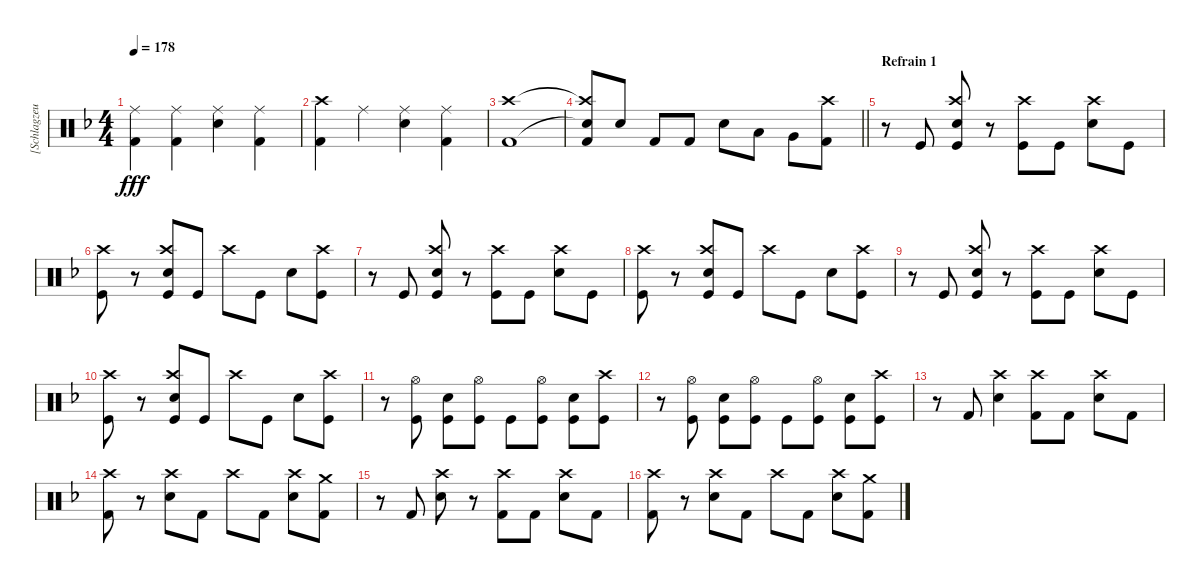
\track ("[Schlagzeug]" "[Schlagzeu") {instrument percussion}
\staff {score}
\articulation defaults
\ts (4 4)
\tempo 178
\clef neutral
\ks dminor
("Ride (middle)" "Kick (hit) 2").4{dy fff} ("Ride (middle)" "Kick (hit) 2").4 ("Ride (middle)" "Electric Snare (hit)").4 ("Ride (middle)" "Kick (hit) 2").4 |
("Crash high (hit)" "Kick (hit) 2").4 "Ride (middle)".4 ("Ride (middle)" "Electric Snare (hit)").4 ("Ride (middle)" "Kick (hit) 2").4 |
("Crash high (hit)" "Kick (hit) 2").1 |
\barLineRight lightlight
("Crash high (hit)"{t} "Snare (hit)"{t} "Kick (hit) 2").8 "Electric Snare (hit)".8 "Kick (hit) 2".8 "Kick (hit) 2".8 "Electric Snare (hit)".8 "Low Tom (hit)".8 "Very Low Tom (hit)".8 ("Crash high (hit)" "Kick (hit) 2").8 |
\section ("" "Refrain 1")
r.8 "Kick (hit)".8 ("Crash high (hit)" "Electric Snare (hit)" "Kick (hit)").8 r.8 ("Crash high (hit)" "Kick (hit)").8 "Kick (hit)".8 ("Crash high (hit)" "Electric Snare (hit)").8 "Kick (hit)".8 |
("Crash high (hit)" "Kick (hit)").8 r.8 ("Crash high (hit)" "Electric Snare (hit)" "Kick (hit)").8 "Kick (hit)".8 "Crash high (hit)".8 "Kick (hit)".8 "Electric Snare (hit)".8 ("Kick (hit)" "Crash high (hit)").8 |
r.8 "Kick (hit)".8 ("Crash high (hit)" "Electric Snare (hit)" "Kick (hit)").8 r.8 ("Crash high (hit)" "Kick (hit)").8 "Kick (hit)".8 ("Crash high (hit)" "Electric Snare (hit)").8 "Kick (hit)".8 |
("Crash high (hit)" "Kick (hit)").8 r.8 ("Crash high (hit)" "Electric Snare (hit)" "Kick (hit)").8 "Kick (hit)".8 "Crash high (hit)".8 "Kick (hit)".8 "Electric Snare (hit)".8 ("Kick (hit)" "Crash high (hit)").8 |
r.8 "Kick (hit)".8 ("Crash high (hit)" "Electric Snare (hit)" "Kick (hit)").8 r.8 ("Crash high (hit)" "Kick (hit)").8 "Kick (hit)".8 ("Crash high (hit)" "Electric Snare (hit)").8 "Kick (hit)".8 |
("Crash high (hit)" "Kick (hit)").8 r.8 ("Crash high (hit)" "Electric Snare (hit)" "Kick (hit)").8 "Kick (hit)".8 "Crash high (hit)".8 "Kick (hit)".8 "Electric Snare (hit)".8 ("Kick (hit)" "Crash high (hit)").8 |
r.8 ("Hi-Hat (open)" "Kick (hit)").8 ("Electric Snare (hit)" "Kick (hit)").8 ("Hi-Hat (open)" "Kick (hit)").8 "Kick (hit)".8 ("Hi-Hat (open)" "Kick (hit)").8 ("Electric Snare (hit)" "Kick (hit)").8 ("Crash high (hit)" "Kick (hit)").8 |
r.8 ("Hi-Hat (open)" "Kick (hit)").8 ("Electric Snare (hit)" "Kick (hit)").8 ("Hi-Hat (open)" "Kick (hit)").8 "Kick (hit)".8 ("Hi-Hat (open)" "Kick (hit)").8 ("Electric Snare (hit)" "Kick (hit)").8 ("Crash high (hit)" "Kick (hit)").8 |
r.8 "Kick (hit) 2".8 ("Crash high (hit)" "Electric Snare (hit)").4 ("Crash high (hit)" "Kick (hit) 2").8 "Kick (hit) 2".8 ("Crash high (hit)" "Electric Snare (hit)").8 "Kick (hit) 2".8 |
("Crash high (hit)" "Kick (hit) 2").8 r.8 ("Crash high (hit)" "Electric Snare (hit)").8 "Kick (hit) 2".8 "Crash high (hit)".8 "Kick (hit) 2".8 ("Crash high (hit)" "Electric Snare (hit)").8 ("Crash medium (hit)" "Kick (hit) 2").8 |
r.8 "Kick (hit) 2".8 ("Crash high (hit)" "Electric Snare (hit)").8 r.8 ("Crash high (hit)" "Kick (hit) 2").8 "Kick (hit) 2".8 ("Crash high (hit)" "Electric Snare (hit)").8 "Kick (hit) 2".8 |
("Crash high (hit)" "Kick (hit) 2").8 r.8 ("Crash high (hit)" "Electric Snare (hit)").8 "Kick (hit) 2".8 "Crash high (hit)".8 "Kick (hit) 2".8 ("Crash high (hit)" "Electric Snare (hit)").8 ("Crash medium (hit)" "Kick (hit) 2").8
